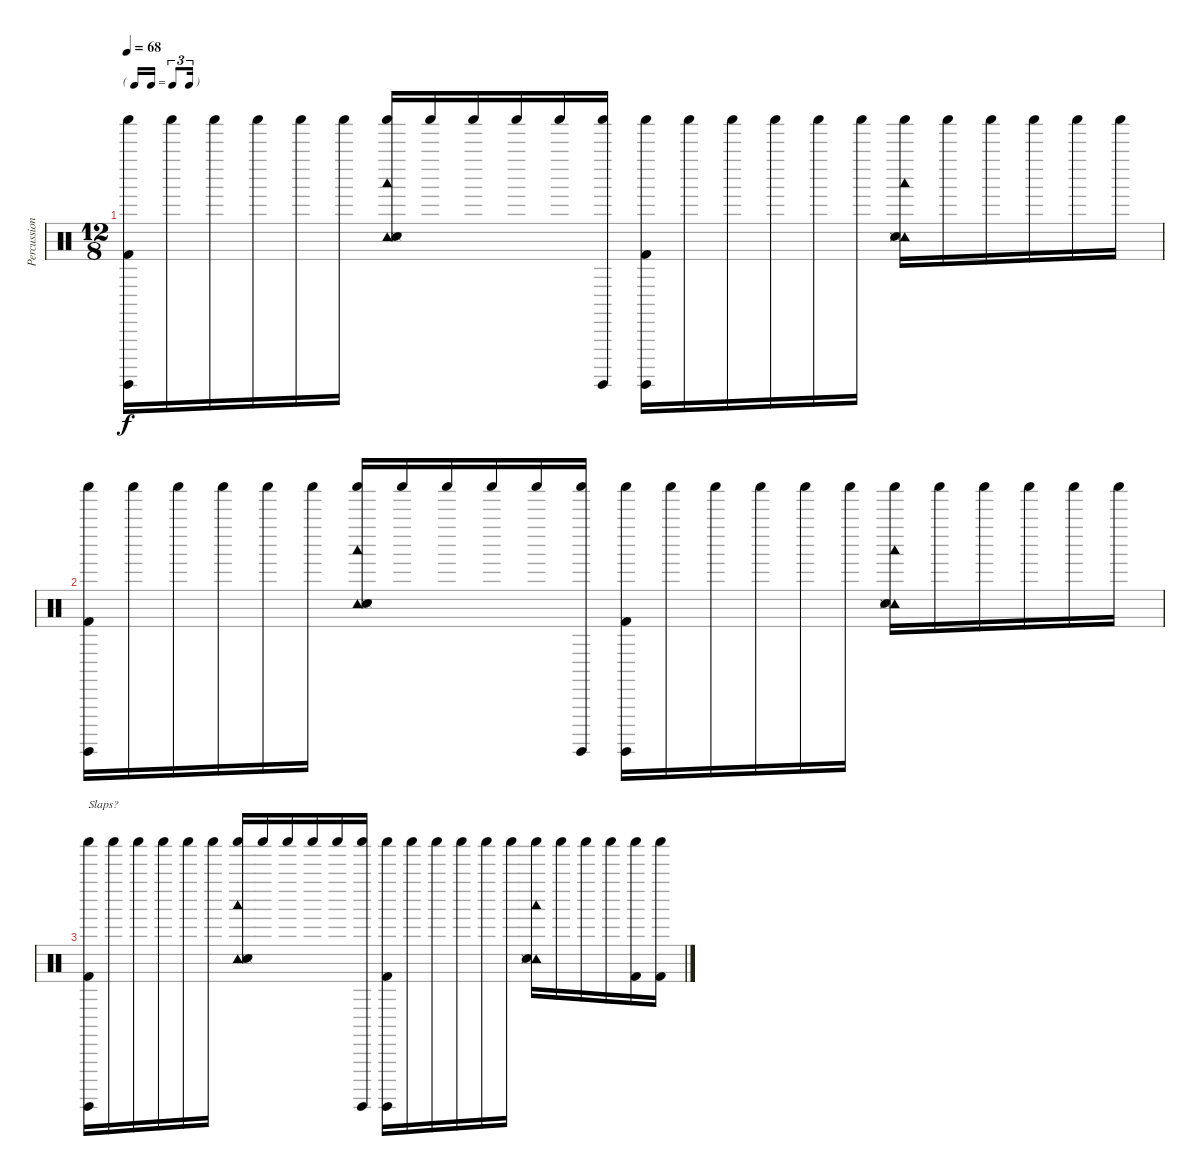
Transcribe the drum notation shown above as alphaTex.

\track ("Percussion" "Percussion") {instrument percussion}
\staff {score}
\articulation defaults
\ts (12 8)
\tf triplet16th
\tempo 68
\clef neutral
\ks c
("Shaker (hit)" "Surdo (hit)" "Kick (hit) 2").16{dy f} "Shaker (hit)".16 "Shaker (hit)".16 "Shaker (hit)".16 "Shaker (hit)".16 "Shaker (hit)".16 ("Tambourine (hit)" "Shaker (hit)" "Hand Clap (hit)" "Woodblock low (hit)" "Snare (side stick) 3").16 "Shaker (hit)".16 "Shaker (hit)".16 "Shaker (hit)".16 "Shaker (hit)".16 ("Shaker (hit)" "Surdo (hit)").16 ("Shaker (hit)" "Surdo (hit)" "Kick (hit) 2").16 "Shaker (hit)".16 "Shaker (hit)".16 "Shaker (hit)".16 "Shaker (hit)".16 "Shaker (hit)".16 ("Tambourine (hit)" "Shaker (hit)" "Hand Clap (hit)" "Woodblock low (hit)" "Snare (side stick) 3").16 "Shaker (hit)".16 "Shaker (hit)".16 "Shaker (hit)".16 "Shaker (hit)".16 "Shaker (hit)".16 |
("Shaker (hit)" "Surdo (hit)" "Kick (hit) 2").16 "Shaker (hit)".16 "Shaker (hit)".16 "Shaker (hit)".16 "Shaker (hit)".16 "Shaker (hit)".16 ("Tambourine (hit)" "Shaker (hit)" "Hand Clap (hit)" "Woodblock low (hit)" "Snare (side stick) 3").16 "Shaker (hit)".16 "Shaker (hit)".16 "Shaker (hit)".16 "Shaker (hit)".16 ("Shaker (hit)" "Surdo (hit)").16 ("Shaker (hit)" "Surdo (hit)" "Kick (hit) 2").16 "Shaker (hit)".16 "Shaker (hit)".16 "Shaker (hit)".16 "Shaker (hit)".16 "Shaker (hit)".16 ("Tambourine (hit)" "Shaker (hit)" "Hand Clap (hit)" "Woodblock low (hit)" "Snare (side stick) 3").16 "Shaker (hit)".16 "Shaker (hit)".16 "Shaker (hit)".16 "Shaker (hit)".16 "Shaker (hit)".16 |
("Shaker (hit)" "Surdo (hit)" "Kick (hit) 2").16{txt "Slaps?"} "Shaker (hit)".16 "Shaker (hit)".16 "Shaker (hit)".16 "Shaker (hit)".16 "Shaker (hit)".16 ("Tambourine (hit)" "Shaker (hit)" "Hand Clap (hit)" "Woodblock low (hit)" "Snare (side stick) 3").16 "Shaker (hit)".16 "Shaker (hit)".16 "Shaker (hit)".16 "Shaker (hit)".16 ("Shaker (hit)" "Surdo (hit)").16 ("Shaker (hit)" "Surdo (hit)" "Kick (hit) 2").16 "Shaker (hit)".16 "Shaker (hit)".16 "Shaker (hit)".16 "Shaker (hit)".16 "Shaker (hit)".16 ("Tambourine (hit)" "Shaker (hit)" "Hand Clap (hit)" "Woodblock low (hit)" "Snare (side stick) 3").16 "Shaker (hit)".16 "Shaker (hit)".16 "Shaker (hit)".16 ("Shaker (hit)" "Kick (hit) 2").16 ("Shaker (hit)" "Kick (hit) 2").16
